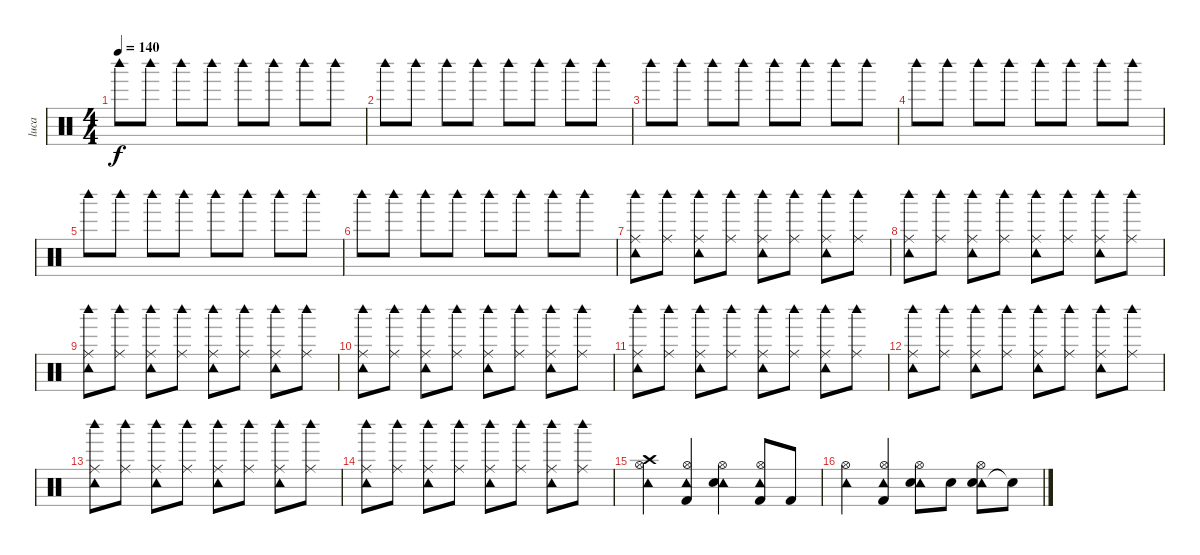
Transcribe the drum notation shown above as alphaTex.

\track ("luca" "luca") {instrument percussion}
\staff {score}
\articulation defaults
\ts (4 4)
\tempo 140
\clef neutral
\ks c "Woodblock high (hit)".8{dy f} "Woodblock high (hit)".8 "Woodblock high (hit)".8 "Woodblock high (hit)".8 "Woodblock high (hit)".8 "Woodblock high (hit)".8 "Woodblock high (hit)".8 "Woodblock high (hit)".8
|
"Woodblock high (hit)".8 "Woodblock high (hit)".8 "Woodblock high (hit)".8 "Woodblock high (hit)".8 "Woodblock high (hit)".8 "Woodblock high (hit)".8 "Woodblock high (hit)".8 "Woodblock high (hit)".8 |
"Woodblock high (hit)".8 "Woodblock high (hit)".8 "Woodblock high (hit)".8 "Woodblock high (hit)".8 "Woodblock high (hit)".8 "Woodblock high (hit)".8 "Woodblock high (hit)".8 "Woodblock high (hit)".8 |
"Woodblock high (hit)".8 "Woodblock high (hit)".8 "Woodblock high (hit)".8 "Woodblock high (hit)".8 "Woodblock high (hit)".8 "Woodblock high (hit)".8 "Woodblock high (hit)".8 "Woodblock high (hit)".8 |
"Woodblock high (hit)".8 "Woodblock high (hit)".8 "Woodblock high (hit)".8 "Woodblock high (hit)".8 "Woodblock high (hit)".8 "Woodblock high (hit)".8 "Woodblock high (hit)".8 "Woodblock high (hit)".8 |
"Woodblock high (hit)".8 "Woodblock high (hit)".8 "Woodblock high (hit)".8 "Woodblock high (hit)".8 "Woodblock high (hit)".8 "Woodblock high (hit)".8 "Woodblock high (hit)".8 "Woodblock high (hit)".8 |
("Woodblock high (hit)" "Ride (middle)" "Tambourine (hit)").8 ("Woodblock high (hit)" "Ride (middle)").8 ("Woodblock high (hit)" "Ride (middle)" "Tambourine (hit)").8 ("Woodblock high (hit)" "Ride (middle)").8 ("Woodblock high (hit)" "Ride (middle)" "Tambourine (hit)").8 ("Woodblock high (hit)" "Ride (middle)").8 ("Woodblock high (hit)" "Ride (middle)" "Tambourine (hit)").8 ("Woodblock high (hit)" "Ride (middle)").8 |
("Woodblock high (hit)" "Ride (middle)" "Tambourine (hit)").8 ("Woodblock high (hit)" "Ride (middle)").8 ("Woodblock high (hit)" "Ride (middle)" "Tambourine (hit)").8 ("Woodblock high (hit)" "Ride (middle)").8 ("Woodblock high (hit)" "Ride (middle)" "Tambourine (hit)").8 ("Woodblock high (hit)" "Ride (middle)").8 ("Woodblock high (hit)" "Ride (middle)" "Tambourine (hit)").8 ("Woodblock high (hit)" "Ride (middle)").8 |
("Woodblock high (hit)" "Ride (middle)" "Tambourine (hit)").8 ("Woodblock high (hit)" "Ride (middle)").8 ("Woodblock high (hit)" "Ride (middle)" "Tambourine (hit)").8 ("Woodblock high (hit)" "Ride (middle)").8 ("Woodblock high (hit)" "Ride (middle)" "Tambourine (hit)").8 ("Woodblock high (hit)" "Ride (middle)").8 ("Woodblock high (hit)" "Ride (middle)" "Tambourine (hit)").8 ("Woodblock high (hit)" "Ride (middle)").8 |
("Woodblock high (hit)" "Ride (middle)" "Tambourine (hit)").8 ("Woodblock high (hit)" "Ride (middle)").8 ("Woodblock high (hit)" "Ride (middle)" "Tambourine (hit)").8 ("Woodblock high (hit)" "Ride (middle)").8 ("Woodblock high (hit)" "Ride (middle)" "Tambourine (hit)").8 ("Woodblock high (hit)" "Ride (middle)").8 ("Woodblock high (hit)" "Ride (middle)" "Tambourine (hit)").8 ("Woodblock high (hit)" "Ride (middle)").8 |
("Woodblock high (hit)" "Ride (middle)" "Tambourine (hit)").8 ("Woodblock high (hit)" "Ride (middle)").8 ("Woodblock high (hit)" "Ride (middle)" "Tambourine (hit)").8 ("Woodblock high (hit)" "Ride (middle)").8 ("Woodblock high (hit)" "Ride (middle)" "Tambourine (hit)").8 ("Woodblock high (hit)" "Ride (middle)").8 ("Woodblock high (hit)" "Ride (middle)" "Tambourine (hit)").8 ("Woodblock high (hit)" "Ride (middle)").8 |
("Woodblock high (hit)" "Ride (middle)" "Tambourine (hit)").8 ("Woodblock high (hit)" "Ride (middle)").8 ("Woodblock high (hit)" "Ride (middle)" "Tambourine (hit)").8 ("Woodblock high (hit)" "Ride (middle)").8 ("Woodblock high (hit)" "Ride (middle)" "Tambourine (hit)").8 ("Woodblock high (hit)" "Ride (middle)").8 ("Woodblock high (hit)" "Ride (middle)" "Tambourine (hit)").8 ("Woodblock high (hit)" "Ride (middle)").8 |
("Woodblock high (hit)" "Ride (middle)" "Tambourine (hit)").8 ("Woodblock high (hit)" "Ride (middle)").8 ("Woodblock high (hit)" "Ride (middle)" "Tambourine (hit)").8 ("Woodblock high (hit)" "Ride (middle)").8 ("Woodblock high (hit)" "Ride (middle)" "Tambourine (hit)").8 ("Woodblock high (hit)" "Ride (middle)").8 ("Woodblock high (hit)" "Ride (middle)" "Tambourine (hit)").8 ("Woodblock high (hit)" "Ride (middle)").8 |
("Woodblock high (hit)" "Ride (middle)" "Tambourine (hit)").8 ("Woodblock high (hit)" "Ride (middle)").8 ("Woodblock high (hit)" "Ride (middle)" "Tambourine (hit)").8 ("Woodblock high (hit)" "Ride (middle)").8 ("Woodblock high (hit)" "Ride (middle)" "Tambourine (hit)").8 ("Woodblock high (hit)" "Ride (middle)").8 ("Woodblock high (hit)" "Ride (middle)" "Tambourine (hit)").8 ("Woodblock high (hit)" "Ride (middle)").8 |
("Crash high (hit)" "Hi-Hat (open)" "Tambourine (hit)").4 ("Tambourine (hit)" "Hi-Hat (open)" "Kick (hit) 2").4 ("Tambourine (hit)" "Hi-Hat (open)" "Snare (hit) 2").4 ("Tambourine (hit)" "Hi-Hat (open)" "Kick (hit) 2").8 "Kick (hit) 2".8 |
("Tambourine (hit)" "Hi-Hat (open)").4 ("Tambourine (hit)" "Hi-Hat (open)" "Kick (hit) 2").4 ("Tambourine (hit)" "Hi-Hat (open)" "Snare (hit) 2").8 "Snare (hit) 2".8 ("Tambourine (hit)" "Hi-Hat (open)" "Snare (hit) 2").8 "Snare (hit)"{t}.8
